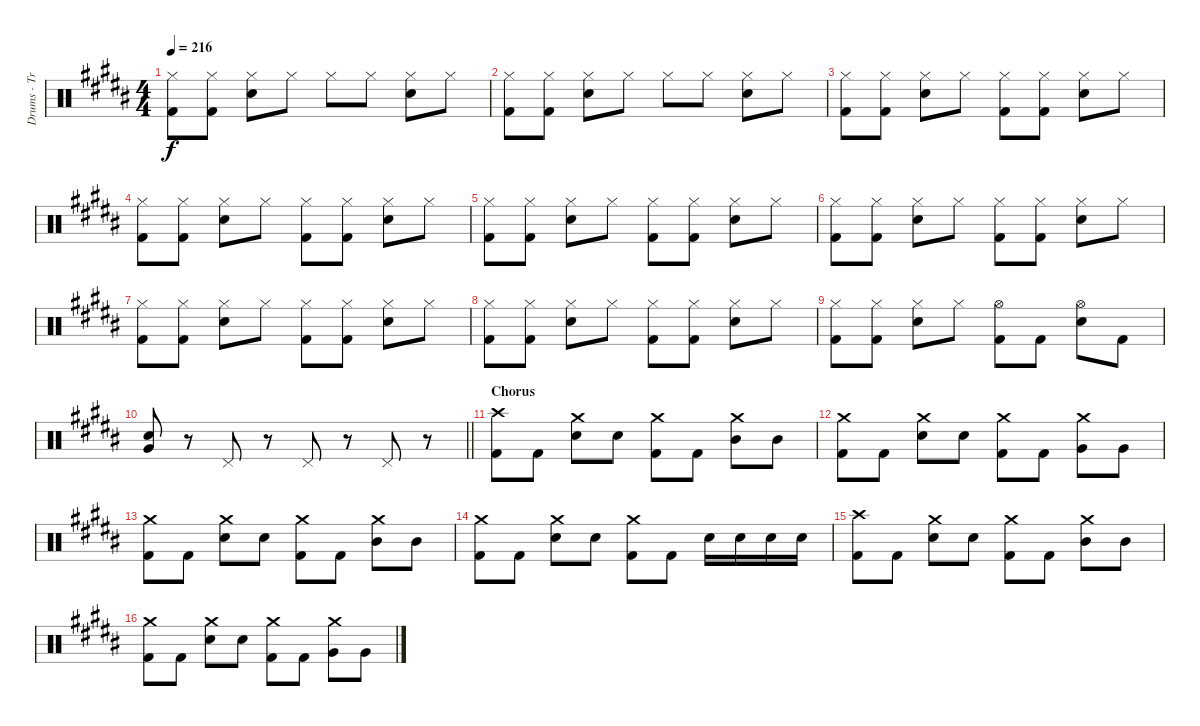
\track ("Drums - Travis Barker" "Drums - Tr") {instrument percussion}
\staff {score}
\articulation defaults
\ts (4 4)
\tempo 216
\clef neutral
\ks b
("Kick (hit) 2" "Hi-Hat (closed)").8{dy f} ("Kick (hit) 2" "Hi-Hat (closed)").8 ("Snare (hit) 2" "Hi-Hat (closed)").8 "Hi-Hat (closed)".8 "Hi-Hat (closed)".8 "Hi-Hat (closed)".8 ("Snare (hit) 2" "Hi-Hat (closed)").8 "Hi-Hat (closed)".8 |
("Kick (hit) 2" "Hi-Hat (closed)").8 ("Kick (hit) 2" "Hi-Hat (closed)").8 ("Snare (hit) 2" "Hi-Hat (closed)").8 "Hi-Hat (closed)".8 "Hi-Hat (closed)".8 "Hi-Hat (closed)".8 ("Snare (hit) 2" "Hi-Hat (closed)").8 "Hi-Hat (closed)".8 |
("Kick (hit) 2" "Hi-Hat (closed)").8 ("Kick (hit) 2" "Hi-Hat (closed)").8 ("Snare (hit) 2" "Hi-Hat (closed)").8 "Hi-Hat (closed)".8 ("Kick (hit) 2" "Hi-Hat (closed)").8 ("Kick (hit) 2" "Hi-Hat (closed)").8 ("Snare (hit) 2" "Hi-Hat (closed)").8 "Hi-Hat (closed)".8 |
("Kick (hit) 2" "Hi-Hat (closed)").8 ("Kick (hit) 2" "Hi-Hat (closed)").8 ("Snare (hit) 2" "Hi-Hat (closed)").8 "Hi-Hat (closed)".8 ("Kick (hit) 2" "Hi-Hat (closed)").8 ("Kick (hit) 2" "Hi-Hat (closed)").8 ("Snare (hit) 2" "Hi-Hat (closed)").8 "Hi-Hat (closed)".8 |
("Kick (hit) 2" "Hi-Hat (closed)").8 ("Kick (hit) 2" "Hi-Hat (closed)").8 ("Snare (hit) 2" "Hi-Hat (closed)").8 "Hi-Hat (closed)".8 ("Kick (hit) 2" "Hi-Hat (closed)").8 ("Kick (hit) 2" "Hi-Hat (closed)").8 ("Snare (hit) 2" "Hi-Hat (closed)").8 "Hi-Hat (closed)".8 |
("Kick (hit) 2" "Hi-Hat (closed)").8 ("Kick (hit) 2" "Hi-Hat (closed)").8 ("Snare (hit) 2" "Hi-Hat (closed)").8 "Hi-Hat (closed)".8 ("Kick (hit) 2" "Hi-Hat (closed)").8 ("Kick (hit) 2" "Hi-Hat (closed)").8 ("Snare (hit) 2" "Hi-Hat (closed)").8 "Hi-Hat (closed)".8 |
("Kick (hit) 2" "Hi-Hat (closed)").8 ("Kick (hit) 2" "Hi-Hat (closed)").8 ("Snare (hit) 2" "Hi-Hat (closed)").8 "Hi-Hat (closed)".8 ("Kick (hit) 2" "Hi-Hat (closed)").8 ("Kick (hit) 2" "Hi-Hat (closed)").8 ("Snare (hit) 2" "Hi-Hat (closed)").8 "Hi-Hat (closed)".8 |
("Kick (hit) 2" "Hi-Hat (closed)").8 ("Kick (hit) 2" "Hi-Hat (closed)").8 ("Snare (hit) 2" "Hi-Hat (closed)").8 "Hi-Hat (closed)".8 ("Kick (hit) 2" "Hi-Hat (closed)").8 ("Kick (hit) 2" "Hi-Hat (closed)").8 ("Snare (hit) 2" "Hi-Hat (closed)").8 "Hi-Hat (closed)".8 |
("Kick (hit) 2" "Hi-Hat (closed)").8 ("Kick (hit) 2" "Hi-Hat (closed)").8 ("Snare (hit) 2" "Hi-Hat (closed)").8 "Hi-Hat (closed)".8 ("Kick (hit) 2" "Hi-Hat (open)").8 "Kick (hit) 2".8 ("Snare (hit) 2" "Hi-Hat (open)").8 "Kick (hit) 2".8 |
\barLineRight lightlight
("Snare (hit) 2" "Very Low Tom (hit)").8 r.8 "Pedal Hi-Hat (hit)".8 r.8 "Pedal Hi-Hat (hit)".8 r.8 "Pedal Hi-Hat (hit)".8 r.8 |
\section ("" "Chorus")
("Kick (hit) 2" "Crash high (hit)").8 "Kick (hit) 2".8 ("Snare (hit) 2" "Crash medium (hit)").8 "Snare (hit) 2".8 ("Kick (hit) 2" "Crash medium (hit)").8 "Kick (hit) 2".8 ("Mid Tom (hit)" "Crash medium (hit)").8 "Mid Tom (hit)".8 |
("Kick (hit) 2" "Crash medium (hit)").8 "Kick (hit) 2".8 ("Snare (hit) 2" "Crash medium (hit)").8 "Snare (hit) 2".8 ("Kick (hit) 2" "Crash medium (hit)").8 "Kick (hit) 2".8 ("Very Low Tom (hit)" "Crash medium (hit)").8 "Very Low Tom (hit)".8 |
("Kick (hit) 2" "Crash medium (hit)").8 "Kick (hit) 2".8 ("Snare (hit) 2" "Crash medium (hit)").8 "Snare (hit) 2".8 ("Kick (hit) 2" "Crash medium (hit)").8 "Kick (hit) 2".8 ("Mid Tom (hit)" "Crash medium (hit)").8 "Mid Tom (hit)".8 |
("Kick (hit) 2" "Crash medium (hit)").8 "Kick (hit) 2".8 ("Snare (hit) 2" "Crash medium (hit)").8 "Snare (hit) 2".8 ("Kick (hit) 2" "Crash medium (hit)").8 "Kick (hit) 2".8 "Snare (hit) 2".16 "Snare (hit) 2".16 "Snare (hit) 2".16 "Snare (hit) 2".16 |
("Kick (hit) 2" "Crash high (hit)").8 "Kick (hit) 2".8 ("Snare (hit) 2" "Crash medium (hit)").8 "Snare (hit) 2".8 ("Kick (hit) 2" "Crash medium (hit)").8 "Kick (hit) 2".8 ("Mid Tom (hit)" "Crash medium (hit)").8 "Mid Tom (hit)".8 |
("Kick (hit) 2" "Crash medium (hit)").8 "Kick (hit) 2".8 ("Snare (hit) 2" "Crash medium (hit)").8 "Snare (hit) 2".8 ("Kick (hit) 2" "Crash medium (hit)").8 "Kick (hit) 2".8 ("Very Low Tom (hit)" "Crash medium (hit)").8 "Very Low Tom (hit)".8
